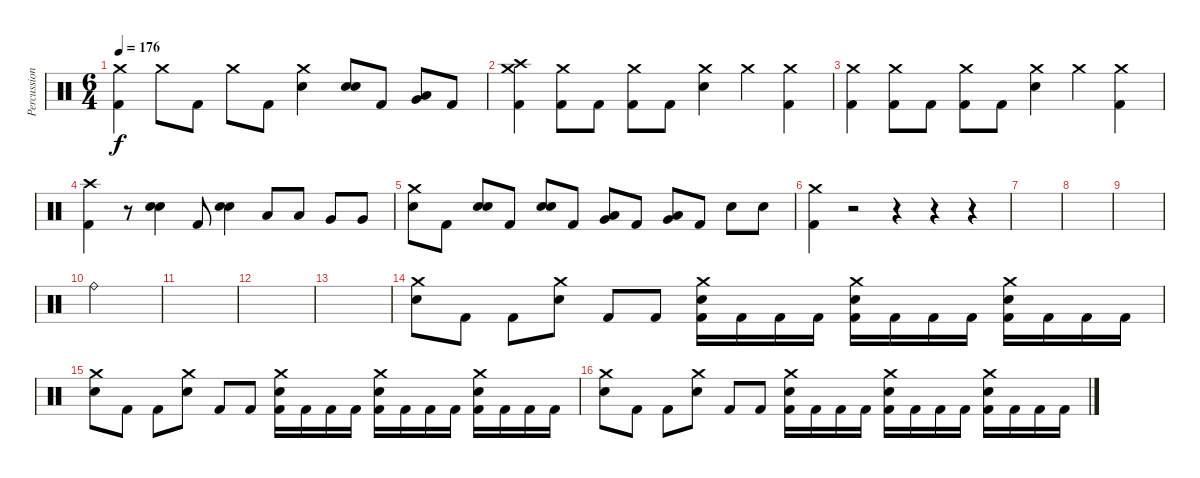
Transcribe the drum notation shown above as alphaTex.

\track ("Percussion" "Percussion") {instrument percussion}
\staff {score}
\articulation defaults
\ts (6 4)
\tempo 176
\clef neutral
\ks c
("Crash medium (hit)" "Kick (hit) 2").4{dy f} "Crash medium (hit)".8 "Kick (hit) 2".8 "Crash medium (hit)".8 "Kick (hit) 2".8 ("Crash medium (hit)" "Snare (hit) 2").4 ("Snare (hit) 2" "Snare (hit) 2").8 "Kick (hit) 2".8 ("Very Low Tom (hit)" "Low Tom (hit)").8 "Kick (hit) 2".8 |
("Crash high (hit)" "Crash medium (hit)" "Kick (hit) 2").4 ("Crash medium (hit)" "Kick (hit) 2").8 "Kick (hit) 2".8 ("Crash medium (hit)" "Kick (hit) 2").8 "Kick (hit) 2".8 ("Crash medium (hit)" "Snare (hit) 2").4 "Crash medium (hit)".4 ("Crash medium (hit)" "Kick (hit) 2").4 |
("Crash medium (hit)" "Kick (hit) 2").4 ("Crash medium (hit)" "Kick (hit) 2").8 "Kick (hit) 2".8 ("Crash medium (hit)" "Kick (hit) 2").8 "Kick (hit) 2".8 ("Crash medium (hit)" "Snare (hit) 2").4 "Crash medium (hit)".4 ("Crash medium (hit)" "Kick (hit) 2").4 |
("Crash high (hit)" "Kick (hit) 2").4 r.8 ("Snare (hit) 2" "Snare (hit) 2").4 "Kick (hit) 2".8 ("Snare (hit) 2" "Snare (hit) 2").4 "Low Tom (hit)".8 "Low Tom (hit)".8 "Very Low Tom (hit)".8 "Very Low Tom (hit)".8 |
("Crash medium (hit)" "Snare (hit) 2").8 "Kick (hit) 2".8 ("Snare (hit) 2" "Snare (hit) 2").8 "Kick (hit) 2".8 ("Snare (hit) 2" "Snare (hit) 2").8 "Kick (hit) 2".8 ("Low Tom (hit)" "Very Low Tom (hit)").8 "Kick (hit) 2".8 ("Very Low Tom (hit)" "Low Floor Tom (hit)").8 "Kick (hit) 2".8 "Snare (hit) 2".8 "Snare (hit) 2".8 |
("Crash medium (hit)" "Kick (hit) 2").4 r.2{volume 0} r.4 r.4 r.4 |
|
|
|
"Ride (bell)".2{volume 13} |
|
|
|
("Crash medium (hit)" "Snare (hit) 2").8 "Kick (hit) 2".8 "Kick (hit) 2".8 ("Crash medium (hit)" "Snare (hit) 2").8 "Kick (hit) 2".8 "Kick (hit) 2".8 ("Crash medium (hit)" "Snare (hit) 2" "Kick (hit) 2").16 "Kick (hit) 2".16 "Kick (hit) 2".16 "Kick (hit) 2".16 ("Crash medium (hit)" "Snare (hit) 2" "Kick (hit) 2").16 "Kick (hit) 2".16 "Kick (hit) 2".16 "Kick (hit) 2".16 ("Crash medium (hit)" "Snare (hit) 2" "Kick (hit) 2").16 "Kick (hit) 2".16 "Kick (hit) 2".16 "Kick (hit) 2".16 |
("Crash medium (hit)" "Snare (hit) 2").8 "Kick (hit) 2".8 "Kick (hit) 2".8 ("Crash medium (hit)" "Snare (hit) 2").8 "Kick (hit) 2".8 "Kick (hit) 2".8 ("Crash medium (hit)" "Snare (hit) 2" "Kick (hit) 2").16 "Kick (hit) 2".16 "Kick (hit) 2".16 "Kick (hit) 2".16 ("Crash medium (hit)" "Snare (hit) 2" "Kick (hit) 2").16 "Kick (hit) 2".16 "Kick (hit) 2".16 "Kick (hit) 2".16 ("Crash medium (hit)" "Snare (hit) 2" "Kick (hit) 2").16 "Kick (hit) 2".16 "Kick (hit) 2".16 "Kick (hit) 2".16 |
("Crash medium (hit)" "Snare (hit) 2").8 "Kick (hit) 2".8 "Kick (hit) 2".8 ("Crash medium (hit)" "Snare (hit) 2").8 "Kick (hit) 2".8 "Kick (hit) 2".8 ("Crash medium (hit)" "Snare (hit) 2" "Kick (hit) 2").16 "Kick (hit) 2".16 "Kick (hit) 2".16 "Kick (hit) 2".16 ("Crash medium (hit)" "Snare (hit) 2" "Kick (hit) 2").16 "Kick (hit) 2".16 "Kick (hit) 2".16 "Kick (hit) 2".16 ("Crash medium (hit)" "Snare (hit) 2" "Kick (hit) 2").16 "Kick (hit) 2".16 "Kick (hit) 2".16 "Kick (hit) 2".16
